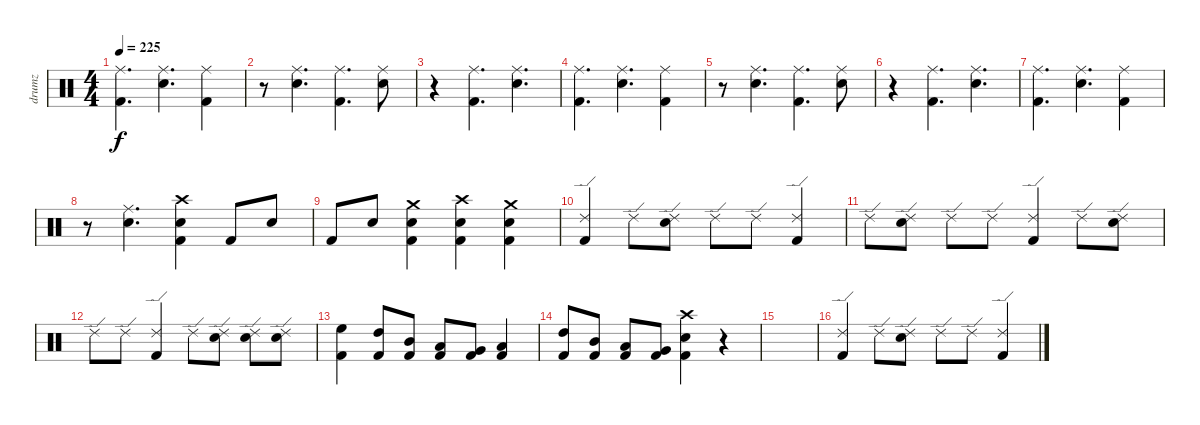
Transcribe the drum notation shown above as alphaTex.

\track ("drumz" "drumz") {instrument percussion}
\staff {score}
\articulation defaults
\ts (4 4)
\tempo 225
\clef neutral
\ks c
("Ride (middle)" "Kick (hit) 2").4{d dy f} ("Ride (middle)" "Electric Snare (hit)").4{d} ("Ride (middle)" "Kick (hit) 2").4 |
r.8 ("Ride (middle)" "Electric Snare (hit)").4{d} ("Ride (middle)" "Kick (hit) 2").4{d} ("Ride (middle)" "Electric Snare (hit)").8 |
r.4 ("Ride (middle)" "Kick (hit) 2").4{d} ("Ride (middle)" "Electric Snare (hit)").4{d} |
("Ride (middle)" "Kick (hit) 2").4{d} ("Ride (middle)" "Electric Snare (hit)").4{d} ("Ride (middle)" "Kick (hit) 2").4 |
r.8 ("Ride (middle)" "Electric Snare (hit)").4{d} ("Ride (middle)" "Kick (hit) 2").4{d} ("Ride (middle)" "Electric Snare (hit)").8 |
r.4 ("Ride (middle)" "Kick (hit) 2").4{d} ("Ride (middle)" "Electric Snare (hit)").4{d} |
("Ride (middle)" "Kick (hit) 2").4{d} ("Ride (middle)" "Electric Snare (hit)").4{d} ("Ride (middle)" "Kick (hit) 2").4 |
r.8 ("Ride (middle)" "Electric Snare (hit)").4{d} ("Crash high (hit)" "Electric Snare (hit)" "Kick (hit) 2").4 "Kick (hit) 2".8 "Electric Snare (hit)".8 |
"Kick (hit) 2".8 "Electric Snare (hit)".8 ("Crash medium (hit)" "Electric Snare (hit)" "Kick (hit) 2").4 ("Crash high (hit)" "Electric Snare (hit)" "Kick (hit) 2").4 ("Crash medium (hit)" "Electric Snare (hit)" "Kick (hit) 2").4 |
("Ride (edge) 2" "Kick (hit) 2").4 "Ride (edge) 2".8 ("Ride (edge) 2" "Electric Snare (hit)").8 "Ride (edge) 2".8 "Ride (edge) 2".8 ("Ride (edge) 2" "Kick (hit) 2").4 |
"Ride (edge) 2".8 ("Ride (edge) 2" "Electric Snare (hit)").8 "Ride (edge) 2".8 "Ride (edge) 2".8 ("Ride (edge) 2" "Kick (hit) 2").4 "Ride (edge) 2".8 ("Ride (edge) 2" "Electric Snare (hit)").8 |
"Ride (edge) 2".8 "Ride (edge) 2".8 ("Ride (edge) 2" "Kick (hit) 2").4 "Ride (edge) 2".8 ("Ride (edge) 2" "Electric Snare (hit)").8 ("Ride (edge) 2" "Electric Snare (hit)").8 ("Ride (edge) 2" "Electric Snare (hit)").8 |
("High Floor Tom (hit)" "Kick (hit) 2").4 ("High Tom (hit)" "Kick (hit) 2").8 ("Mid Tom (hit)" "Kick (hit) 2").8 ("Low Tom (hit)" "Kick (hit) 2").8 ("Very Low Tom (hit)" "Kick (hit) 2").8 ("Low Floor Tom (hit)" "Kick (hit) 2").4 |
("High Tom (hit)" "Kick (hit) 2").8 ("Mid Tom (hit)" "Kick (hit) 2").8 ("Low Tom (hit)" "Kick (hit) 2").8 ("Very Low Tom (hit)" "Kick (hit) 2").8 ("Crash high (hit)" "Electric Snare (hit)" "Kick (hit) 2").4 r.4 |
|
("Ride (edge) 2" "Kick (hit) 2").4 "Ride (edge) 2".8 ("Ride (edge) 2" "Electric Snare (hit)").8 "Ride (edge) 2".8 "Ride (edge) 2".8 ("Ride (edge) 2" "Kick (hit) 2").4
